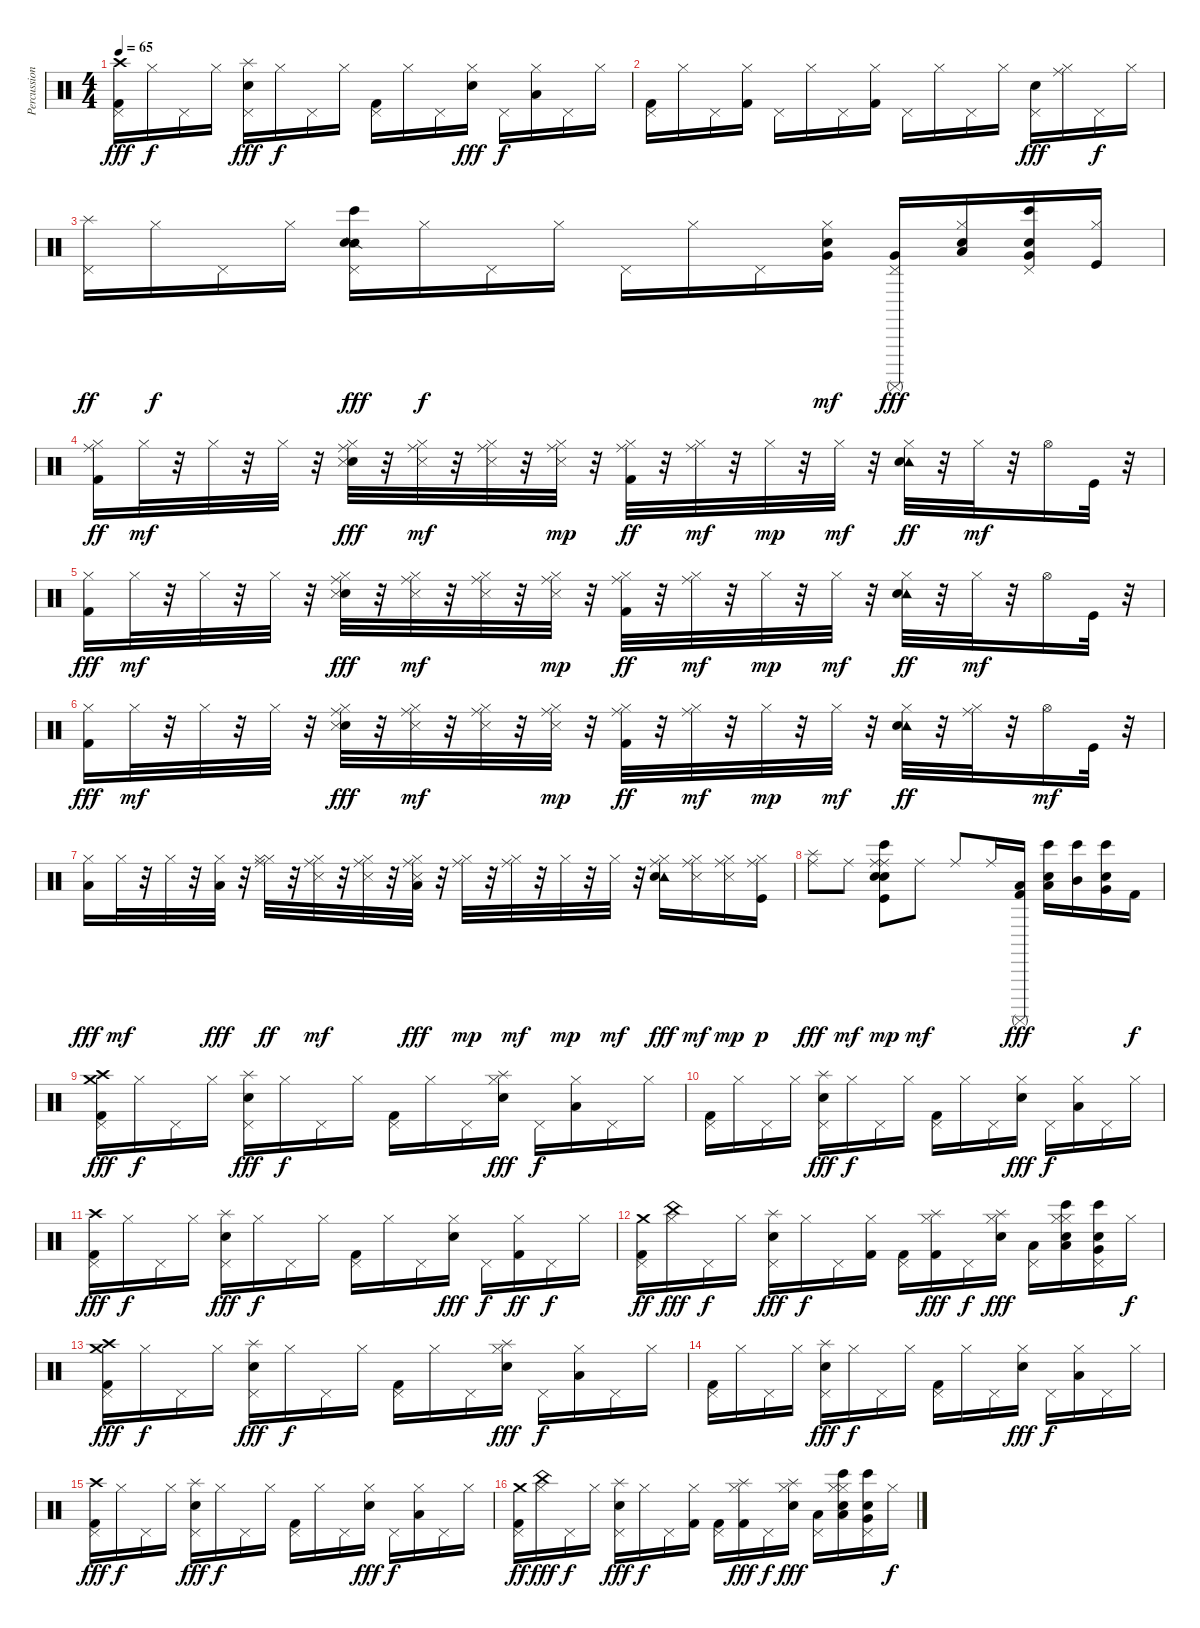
\track ("Percussion" "Percussion") {instrument percussion}
\staff {score}
\articulation defaults
\ts (4 4)
\tempo 65
\clef neutral
\ks c
("Pedal Hi-Hat (hit)" "Kick (hit) 2" "Crash high (hit)").16{dy fff} "Hi-Hat (closed)".16{dy f} "Pedal Hi-Hat (hit)".16 "Hi-Hat (closed)".16 ("Pedal Hi-Hat (hit)" "Electric Snare (hit)" "Splash (hit)").16{dy fff} "Hi-Hat (closed)".16{dy f} "Pedal Hi-Hat (hit)".16 "Hi-Hat (closed)".16 ("Pedal Hi-Hat (hit)" "Kick (hit) 2").16 "Hi-Hat (closed)".16 "Pedal Hi-Hat (hit)".16 ("Hi-Hat (closed)" "Electric Snare (hit)").16{dy fff} "Pedal Hi-Hat (hit)".16{dy f} ("Hi-Hat (closed)" "Low Floor Tom (hit)").16 "Pedal Hi-Hat (hit)".16 "Hi-Hat (closed)".16 |
("Pedal Hi-Hat (hit)" "Kick (hit) 2").16 "Hi-Hat (closed)".16 "Pedal Hi-Hat (hit)".16 ("Hi-Hat (closed)" "Kick (hit) 2").16 "Pedal Hi-Hat (hit)".16 "Hi-Hat (closed)".16 "Pedal Hi-Hat (hit)".16 ("Hi-Hat (closed)" "Kick (hit) 2").16 "Pedal Hi-Hat (hit)".16 "Hi-Hat (closed)".16 "Pedal Hi-Hat (hit)".16 "Hi-Hat (closed)".16 ("Pedal Hi-Hat (hit)" "Hand Clap (hit)").16{dy fff} ("Hi-Hat (closed)" "Ride (middle)").16 "Pedal Hi-Hat (hit)".16{dy f} "Hi-Hat (closed)".16 |
("Pedal Hi-Hat (hit)" "Splash (hit)").16{dy ff} "Hi-Hat (closed)".16{dy f} "Pedal Hi-Hat (hit)".16 "Hi-Hat (closed)".16 ("Pedal Hi-Hat (hit)" "Snare (side stick) 2" "Hand Clap (hit)" "Bongo High (hit)").16{dy fff} "Hi-Hat (closed)".16{dy f} "Pedal Hi-Hat (hit)".16 "Hi-Hat (closed)".16 "Pedal Hi-Hat (hit)".16 "Hi-Hat (closed)".16 "Pedal Hi-Hat (hit)".16 ("Hi-Hat (closed)" "Very Low Tom (hit)" "Electric Snare (hit)").16{dy mf} ("Pedal Hi-Hat (hit)" "Very Low Tom (hit)" "Surdo (mute)").16{dy fff} ("Hi-Hat (closed)" "Low Tom (hit)" "Hand Clap (hit)").16 ("Pedal Hi-Hat (hit)" "Very Low Tom (hit)" "Bongo High (hit)" "Hand Clap (hit)").16 ("Hi-Hat (closed)" "Kick (hit)").16 |
("Kick (hit) 2" "Hi-Hat (closed)" "Ride (middle)").16{dy ff} "Hi-Hat (closed)".32{dy mf} r.32 "Hi-Hat (closed)".32 r.32 "Hi-Hat (closed)".32 r.32 ("Hand Clap (hit)" "Ride (middle)" "Hi-Hat (closed)" "Snare (side stick) 3").32{dy fff} r.32 ("Hi-Hat (closed)" "Snare (side stick) 3" "Ride (middle)").32{dy mf} r.32 ("Ride (middle)" "Snare (side stick) 3" "Hi-Hat (closed)").32 r.32 ("Ride (middle)" "Hi-Hat (closed)" "Snare (side stick) 3").32{dy mp} r.32 ("Ride (middle)" "Hi-Hat (closed)" "Kick (hit) 2").32{dy ff} r.32 ("Ride (middle)" "Hi-Hat (closed)").32{dy mf} r.32 "Hi-Hat (closed)".32{dy mp} r.32 "Hi-Hat (closed)".32{dy mf} r.32 ("Hi-Hat (closed)" "Tambourine (hit)" "Electric Snare (hit)").32{dy ff} r.32 "Hi-Hat (closed)".32{dy mf} r.32 "Hi-Hat (open)".16 "Kick (hit)".32 r.32 |
("Kick (hit) 2" "Hi-Hat (closed)").16{dy fff} "Hi-Hat (closed)".32{dy mf} r.32 "Hi-Hat (closed)".32 r.32 "Hi-Hat (closed)".32 r.32 ("Hand Clap (hit)" "Ride (middle)" "Hi-Hat (closed)" "Snare (side stick) 3").32{dy fff} r.32 ("Hi-Hat (closed)" "Snare (side stick) 3" "Ride (middle)").32{dy mf} r.32 ("Ride (middle)" "Snare (side stick) 3" "Hi-Hat (closed)").32 r.32 ("Ride (middle)" "Hi-Hat (closed)" "Snare (side stick) 3").32{dy mp} r.32 ("Ride (middle)" "Hi-Hat (closed)" "Kick (hit) 2").32{dy ff} r.32 ("Ride (middle)" "Hi-Hat (closed)").32{dy mf} r.32 "Hi-Hat (closed)".32{dy mp} r.32 "Hi-Hat (closed)".32{dy mf} r.32 ("Hi-Hat (closed)" "Tambourine (hit)" "Electric Snare (hit)").32{dy ff} r.32 "Hi-Hat (closed)".32{dy mf} r.32 "Hi-Hat (open)".16 "Kick (hit)".32 r.32 |
("Kick (hit) 2" "Hi-Hat (closed)").16{dy fff} "Hi-Hat (closed)".32{dy mf} r.32 "Hi-Hat (closed)".32 r.32 "Hi-Hat (closed)".32 r.32 ("Hand Clap (hit)" "Ride (middle)" "Hi-Hat (closed)" "Snare (side stick) 3").32{dy fff} r.32 ("Hi-Hat (closed)" "Snare (side stick) 3" "Ride (middle)").32{dy mf} r.32 ("Ride (middle)" "Snare (side stick) 3" "Hi-Hat (closed)").32 r.32 ("Ride (middle)" "Hi-Hat (closed)" "Snare (side stick) 3").32{dy mp} r.32 ("Ride (middle)" "Hi-Hat (closed)" "Kick (hit) 2").32{dy ff} r.32 ("Ride (middle)" "Hi-Hat (closed)").32{dy mf} r.32 "Hi-Hat (closed)".32{dy mp} r.32 "Hi-Hat (closed)".32{dy mf} r.32 ("Hi-Hat (closed)" "Tambourine (hit)" "Electric Snare (hit)").32{dy ff} r.32 ("Hi-Hat (closed)" "Ride (middle)").32 r.32 "Hi-Hat (open)".16{dy mf} "Kick (hit)".32 r.32 |
("Low Floor Tom (hit)" "Hi-Hat (closed)").16{dy fff} "Hi-Hat (closed)".32{dy mf} r.32 "Hi-Hat (closed)".32 r.32 ("Hi-Hat (closed)" "Low Floor Tom (hit)").32{dy fff} r.32 ("Hi-Hat (closed)" "Ride (middle)" "Hi-Hat (closed)").32{dy ff} r.32 ("Hi-Hat (closed)" "Snare (side stick) 3" "Ride (middle)").32{dy mf} r.32 ("Ride (middle)" "Snare (side stick) 3" "Hi-Hat (closed)").32 r.32 ("Ride (middle)" "Hi-Hat (closed)" "Snare (side stick) 3" "Low Floor Tom (hit)").32{dy fff} r.32 ("Ride (middle)" "Hi-Hat (closed)").32{dy mp} r.32 ("Ride (middle)" "Hi-Hat (closed)").32{dy mf} r.32 "Hi-Hat (closed)".32{dy mp} r.32 "Hi-Hat (closed)".32{dy mf} r.32 ("Hi-Hat (closed)" "Tambourine (hit)" "Ride (middle)" "Hand Clap (hit)").16{dy fff} ("Hi-Hat (closed)" "Snare (side stick) 3" "Ride (middle)").16{dy mf} ("Hi-Hat (closed)" "Snare (side stick) 3" "Ride (middle)").16{dy mp} ("Kick (hit)" "Hi-Hat (closed)" "Ride (middle)").16{dy p} |
("Ride (middle)" "Splash (hit)").8{dy fff} "Ride (middle)".8{dy mf} ("Ride (middle)" "Bongo High (hit)" "Hand Clap (hit)" "Ride (middle)" "Kick (hit)" "Electric Snare (hit)").8{dy mp} "Ride (middle)".8{dy mf} "Ride (middle)".8 "Ride (middle)".16 ("Kick (hit) 2" "Low Floor Tom (hit)" "Surdo (mute)").16{dy fff} ("Low Tom (hit)" "Bongo High (hit)" "Electric Snare (hit)").16 ("Mid Tom (hit)" "Bongo High (hit)").16 ("Hand Clap (hit)" "Very Low Tom (hit)" "Bongo High (hit)").16 "Kick (hit) 2".16{dy f} |
("Pedal Hi-Hat (hit)" "Kick (hit) 2" "Crash medium (hit)" "Crash high (hit)").16{dy fff} "Hi-Hat (closed)".16{dy f} "Pedal Hi-Hat (hit)".16 "Hi-Hat (closed)".16 ("Pedal Hi-Hat (hit)" "Electric Snare (hit)" "Splash (hit)").16{dy fff} "Hi-Hat (closed)".16{dy f} "Pedal Hi-Hat (hit)".16 "Hi-Hat (closed)".16 ("Pedal Hi-Hat (hit)" "Kick (hit) 2").16 "Hi-Hat (closed)".16 "Pedal Hi-Hat (hit)".16 ("Hi-Hat (closed)" "Splash (hit)" "Electric Snare (hit)").16{dy fff} "Pedal Hi-Hat (hit)".16{dy f} ("Hi-Hat (closed)" "Low Floor Tom (hit)").16 "Pedal Hi-Hat (hit)".16 "Hi-Hat (closed)".16 |
("Pedal Hi-Hat (hit)" "Kick (hit) 2").16 "Hi-Hat (closed)".16 "Pedal Hi-Hat (hit)".16 "Hi-Hat (closed)".16 ("Pedal Hi-Hat (hit)" "Electric Snare (hit)" "Splash (hit)").16{dy fff} "Hi-Hat (closed)".16{dy f} "Pedal Hi-Hat (hit)".16 "Hi-Hat (closed)".16 ("Pedal Hi-Hat (hit)" "Kick (hit) 2").16 "Hi-Hat (closed)".16 "Pedal Hi-Hat (hit)".16 ("Hi-Hat (closed)" "Electric Snare (hit)").16{dy fff} "Pedal Hi-Hat (hit)".16{dy f} ("Hi-Hat (closed)" "Low Floor Tom (hit)").16 "Pedal Hi-Hat (hit)".16 "Hi-Hat (closed)".16 |
("Pedal Hi-Hat (hit)" "Kick (hit) 2" "Crash high (hit)").16{dy fff} "Hi-Hat (closed)".16{dy f} "Pedal Hi-Hat (hit)".16 "Hi-Hat (closed)".16 ("Pedal Hi-Hat (hit)" "Electric Snare (hit)" "Splash (hit)").16{dy fff} "Hi-Hat (closed)".16{dy f} "Pedal Hi-Hat (hit)".16 "Hi-Hat (closed)".16 ("Pedal Hi-Hat (hit)" "Kick (hit) 2").16 "Hi-Hat (closed)".16 "Pedal Hi-Hat (hit)".16 ("Hi-Hat (closed)" "Electric Snare (hit)").16{dy fff} "Pedal Hi-Hat (hit)".16{dy f} ("Hi-Hat (closed)" "Kick (hit) 2").16{dy ff} "Pedal Hi-Hat (hit)".16{dy f} "Hi-Hat (closed)".16 |
("Pedal Hi-Hat (hit)" "Kick (hit) 2" "Crash medium (hit)").16{dy ff} ("Hi-Hat (closed)" "China (hit)").16{dy fff} "Pedal Hi-Hat (hit)".16{dy f} "Hi-Hat (closed)".16 ("Pedal Hi-Hat (hit)" "Electric Snare (hit)" "Splash (hit)").16{dy fff} "Hi-Hat (closed)".16{dy f} "Pedal Hi-Hat (hit)".16 ("Hi-Hat (closed)" "Kick (hit) 2").16 ("Pedal Hi-Hat (hit)" "Kick (hit) 2").16 ("Hi-Hat (closed)" "Kick (hit) 2" "Splash (hit)").16{dy fff} "Pedal Hi-Hat (hit)".16{dy f} ("Hi-Hat (closed)" "Splash (hit)" "Electric Snare (hit)").16{dy fff} ("Pedal Hi-Hat (hit)" "Low Floor Tom (hit)").16 ("Hi-Hat (closed)" "Hand Clap (hit)" "Low Tom (hit)" "Hi-Hat (closed)" "Bongo High (hit)").16 ("Pedal Hi-Hat (hit)" "Bongo High (hit)" "Very Low Tom (hit)" "Hand Clap (hit)").16 "Hi-Hat (closed)".16{dy f} |
("Pedal Hi-Hat (hit)" "Kick (hit) 2" "Crash medium (hit)" "Crash high (hit)").16{dy fff} "Hi-Hat (closed)".16{dy f} "Pedal Hi-Hat (hit)".16 "Hi-Hat (closed)".16 ("Pedal Hi-Hat (hit)" "Electric Snare (hit)" "Splash (hit)").16{dy fff} "Hi-Hat (closed)".16{dy f} "Pedal Hi-Hat (hit)".16 "Hi-Hat (closed)".16 ("Pedal Hi-Hat (hit)" "Kick (hit) 2").16 "Hi-Hat (closed)".16 "Pedal Hi-Hat (hit)".16 ("Hi-Hat (closed)" "Splash (hit)" "Electric Snare (hit)").16{dy fff} "Pedal Hi-Hat (hit)".16{dy f} ("Hi-Hat (closed)" "Low Floor Tom (hit)").16 "Pedal Hi-Hat (hit)".16 "Hi-Hat (closed)".16 |
("Pedal Hi-Hat (hit)" "Kick (hit) 2").16 "Hi-Hat (closed)".16 "Pedal Hi-Hat (hit)".16 "Hi-Hat (closed)".16 ("Pedal Hi-Hat (hit)" "Electric Snare (hit)" "Splash (hit)").16{dy fff} "Hi-Hat (closed)".16{dy f} "Pedal Hi-Hat (hit)".16 "Hi-Hat (closed)".16 ("Pedal Hi-Hat (hit)" "Kick (hit) 2").16 "Hi-Hat (closed)".16 "Pedal Hi-Hat (hit)".16 ("Hi-Hat (closed)" "Electric Snare (hit)").16{dy fff} "Pedal Hi-Hat (hit)".16{dy f} ("Hi-Hat (closed)" "Low Floor Tom (hit)").16 "Pedal Hi-Hat (hit)".16 "Hi-Hat (closed)".16 |
("Pedal Hi-Hat (hit)" "Kick (hit) 2" "Crash high (hit)").16{dy fff} "Hi-Hat (closed)".16{dy f} "Pedal Hi-Hat (hit)".16 "Hi-Hat (closed)".16 ("Pedal Hi-Hat (hit)" "Electric Snare (hit)" "Splash (hit)").16{dy fff} "Hi-Hat (closed)".16{dy f} "Pedal Hi-Hat (hit)".16 "Hi-Hat (closed)".16 ("Pedal Hi-Hat (hit)" "Kick (hit) 2").16 "Hi-Hat (closed)".16 "Pedal Hi-Hat (hit)".16 ("Hi-Hat (closed)" "Electric Snare (hit)").16{dy fff} "Pedal Hi-Hat (hit)".16{dy f} ("Hi-Hat (closed)" "Low Floor Tom (hit)").16 "Pedal Hi-Hat (hit)".16 "Hi-Hat (closed)".16 |
("Pedal Hi-Hat (hit)" "Kick (hit) 2" "Crash medium (hit)").16{dy ff} ("Hi-Hat (closed)" "China (hit)").16{dy fff} "Pedal Hi-Hat (hit)".16{dy f} "Hi-Hat (closed)".16 ("Pedal Hi-Hat (hit)" "Electric Snare (hit)" "Splash (hit)").16{dy fff} "Hi-Hat (closed)".16{dy f} "Pedal Hi-Hat (hit)".16 ("Hi-Hat (closed)" "Kick (hit) 2").16 ("Pedal Hi-Hat (hit)" "Kick (hit) 2").16 ("Hi-Hat (closed)" "Kick (hit) 2" "Splash (hit)").16{dy fff} "Pedal Hi-Hat (hit)".16{dy f} ("Hi-Hat (closed)" "Splash (hit)" "Electric Snare (hit)").16{dy fff} ("Pedal Hi-Hat (hit)" "Low Floor Tom (hit)").16 ("Hi-Hat (closed)" "Hand Clap (hit)" "Low Tom (hit)" "Hi-Hat (closed)" "Bongo High (hit)").16 ("Pedal Hi-Hat (hit)" "Bongo High (hit)" "Very Low Tom (hit)" "Hand Clap (hit)").16 "Hi-Hat (closed)".16{dy f}
